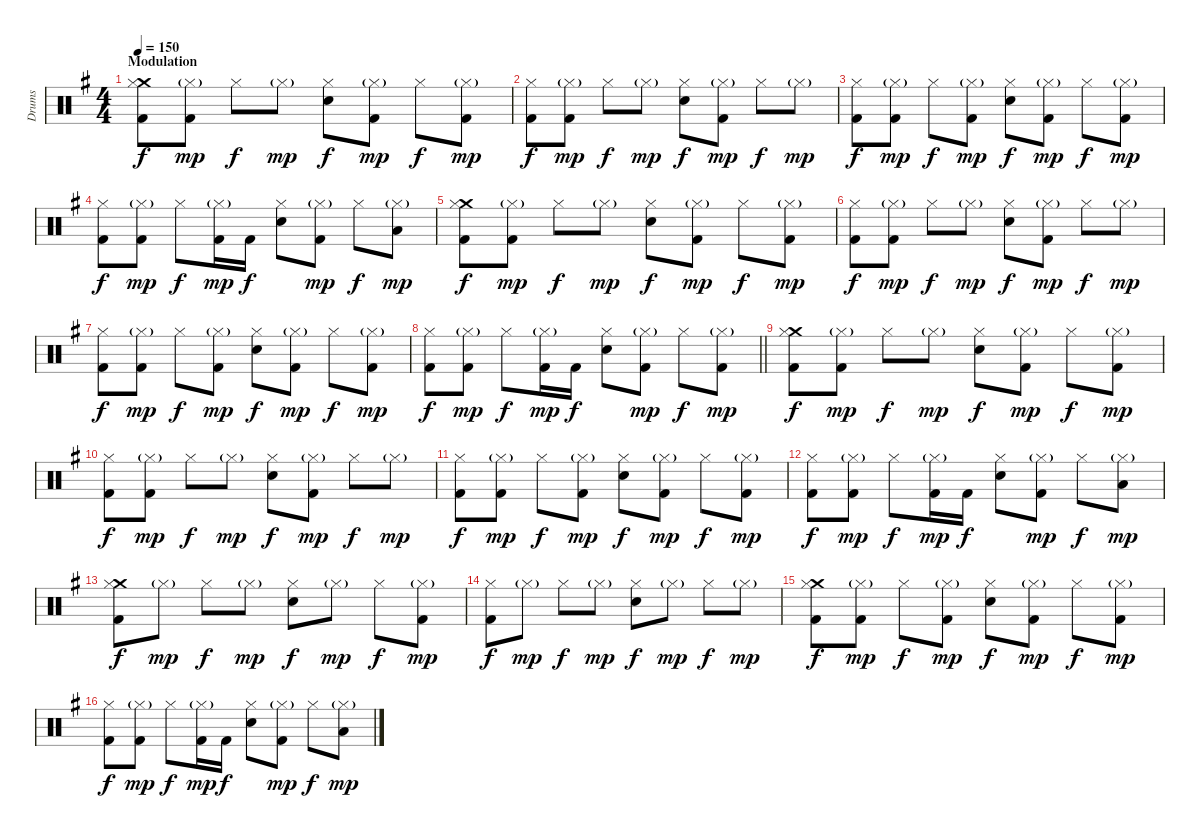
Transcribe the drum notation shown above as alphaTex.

\track ("Drums" "Drums") {instrument percussion}
\staff {score}
\articulation defaults
\ts (4 4)
\section ("" "Modulation")
\tempo 150
\clef neutral
\ks eminor
("Crash medium (hit)" "Hi-Hat (closed)" "Kick (hit) 2").8{dy f} ("Hi-Hat (closed)"{g} "Kick (hit) 2").8{dy mp} "Hi-Hat (closed)".8{dy f} "Hi-Hat (closed)"{g}.8{dy mp} ("Hi-Hat (closed)" "Electric Snare (hit)").8{dy f} ("Hi-Hat (closed)"{g} "Kick (hit) 2").8{dy mp} "Hi-Hat (closed)".8{dy f} ("Hi-Hat (closed)"{g} "Kick (hit) 2").8{dy mp} |
("Hi-Hat (closed)" "Kick (hit) 2").8{dy f} ("Hi-Hat (closed)"{g} "Kick (hit) 2").8{dy mp} "Hi-Hat (closed)".8{dy f} "Hi-Hat (closed)"{g}.8{dy mp} ("Hi-Hat (closed)" "Electric Snare (hit)").8{dy f} ("Hi-Hat (closed)"{g} "Kick (hit) 2").8{dy mp} "Hi-Hat (closed)".8{dy f} "Hi-Hat (closed)"{g}.8{dy mp} |
("Hi-Hat (closed)" "Kick (hit) 2").8{dy f} ("Hi-Hat (closed)"{g} "Kick (hit) 2").8{dy mp} "Hi-Hat (closed)".8{dy f} ("Hi-Hat (closed)"{g} "Kick (hit) 2").8{dy mp} ("Hi-Hat (closed)" "Electric Snare (hit)").8{dy f} ("Hi-Hat (closed)"{g} "Kick (hit) 2").8{dy mp} "Hi-Hat (closed)".8{dy f} ("Hi-Hat (closed)"{g} "Kick (hit) 2").8{dy mp} |
("Hi-Hat (closed)" "Kick (hit) 2").8{dy f} ("Hi-Hat (closed)"{g} "Kick (hit) 2").8{dy mp} "Hi-Hat (closed)".8{dy f} ("Hi-Hat (closed)"{g} "Kick (hit) 2").16{dy mp} "Kick (hit) 2".16{dy f} ("Hi-Hat (closed)" "Electric Snare (hit)").8 ("Hi-Hat (closed)"{g} "Kick (hit) 2").8{dy mp} "Hi-Hat (closed)".8{dy f} ("Hi-Hat (closed)"{g} "Low Tom (hit)").8{dy mp} |
("Crash medium (hit)" "Hi-Hat (closed)" "Kick (hit) 2").8{dy f} ("Hi-Hat (closed)"{g} "Kick (hit) 2").8{dy mp} "Hi-Hat (closed)".8{dy f} "Hi-Hat (closed)"{g}.8{dy mp} ("Hi-Hat (closed)" "Electric Snare (hit)").8{dy f} ("Hi-Hat (closed)"{g} "Kick (hit) 2").8{dy mp} "Hi-Hat (closed)".8{dy f} ("Hi-Hat (closed)"{g} "Kick (hit) 2").8{dy mp} |
("Hi-Hat (closed)" "Kick (hit) 2").8{dy f} ("Hi-Hat (closed)"{g} "Kick (hit) 2").8{dy mp} "Hi-Hat (closed)".8{dy f} "Hi-Hat (closed)"{g}.8{dy mp} ("Hi-Hat (closed)" "Electric Snare (hit)").8{dy f} ("Hi-Hat (closed)"{g} "Kick (hit) 2").8{dy mp} "Hi-Hat (closed)".8{dy f} "Hi-Hat (closed)"{g}.8{dy mp} |
("Hi-Hat (closed)" "Kick (hit) 2").8{dy f} ("Hi-Hat (closed)"{g} "Kick (hit) 2").8{dy mp} "Hi-Hat (closed)".8{dy f} ("Hi-Hat (closed)"{g} "Kick (hit) 2").8{dy mp} ("Hi-Hat (closed)" "Electric Snare (hit)").8{dy f} ("Hi-Hat (closed)"{g} "Kick (hit) 2").8{dy mp} "Hi-Hat (closed)".8{dy f} ("Hi-Hat (closed)"{g} "Kick (hit) 2").8{dy mp} |
\barLineRight lightlight
("Hi-Hat (closed)" "Kick (hit) 2").8{dy f} ("Hi-Hat (closed)"{g} "Kick (hit) 2").8{dy mp} "Hi-Hat (closed)".8{dy f} ("Hi-Hat (closed)"{g} "Kick (hit) 2").16{dy mp} "Kick (hit) 2".16{dy f} ("Hi-Hat (closed)" "Electric Snare (hit)").8 ("Hi-Hat (closed)"{g} "Kick (hit) 2").8{dy mp} "Hi-Hat (closed)".8{dy f} ("Hi-Hat (closed)"{g} "Kick (hit) 2").8{dy mp} |
\section ("" "")
("Crash medium (hit)" "Hi-Hat (closed)" "Kick (hit) 2").8{dy f} ("Hi-Hat (closed)"{g} "Kick (hit) 2").8{dy mp} "Hi-Hat (closed)".8{dy f} "Hi-Hat (closed)"{g}.8{dy mp} ("Hi-Hat (closed)" "Electric Snare (hit)").8{dy f} ("Hi-Hat (closed)"{g} "Kick (hit) 2").8{dy mp} "Hi-Hat (closed)".8{dy f} ("Hi-Hat (closed)"{g} "Kick (hit) 2").8{dy mp} |
("Hi-Hat (closed)" "Kick (hit) 2").8{dy f} ("Hi-Hat (closed)"{g} "Kick (hit) 2").8{dy mp} "Hi-Hat (closed)".8{dy f} "Hi-Hat (closed)"{g}.8{dy mp} ("Hi-Hat (closed)" "Electric Snare (hit)").8{dy f} ("Hi-Hat (closed)"{g} "Kick (hit) 2").8{dy mp} "Hi-Hat (closed)".8{dy f} "Hi-Hat (closed)"{g}.8{dy mp} |
("Hi-Hat (closed)" "Kick (hit) 2").8{dy f} ("Hi-Hat (closed)"{g} "Kick (hit) 2").8{dy mp} "Hi-Hat (closed)".8{dy f} ("Hi-Hat (closed)"{g} "Kick (hit) 2").8{dy mp} ("Hi-Hat (closed)" "Electric Snare (hit)").8{dy f} ("Hi-Hat (closed)"{g} "Kick (hit) 2").8{dy mp} "Hi-Hat (closed)".8{dy f} ("Hi-Hat (closed)"{g} "Kick (hit) 2").8{dy mp} |
("Hi-Hat (closed)" "Kick (hit) 2").8{dy f} ("Hi-Hat (closed)"{g} "Kick (hit) 2").8{dy mp} "Hi-Hat (closed)".8{dy f} ("Hi-Hat (closed)"{g} "Kick (hit) 2").16{dy mp} "Kick (hit) 2".16{dy f} ("Hi-Hat (closed)" "Electric Snare (hit)").8 ("Hi-Hat (closed)"{g} "Kick (hit) 2").8{dy mp} "Hi-Hat (closed)".8{dy f} ("Hi-Hat (closed)"{g} "Low Tom (hit)").8{dy mp} |
("Crash medium (hit)" "Hi-Hat (closed)" "Kick (hit) 2").8{dy f} "Hi-Hat (closed)"{g}.8{dy mp} "Hi-Hat (closed)".8{dy f} "Hi-Hat (closed)"{g}.8{dy mp} ("Hi-Hat (closed)" "Electric Snare (hit)").8{dy f} "Hi-Hat (closed)"{g}.8{dy mp} "Hi-Hat (closed)".8{dy f} ("Hi-Hat (closed)"{g} "Kick (hit) 2").8{dy mp} |
("Hi-Hat (closed)" "Kick (hit) 2").8{dy f} "Hi-Hat (closed)"{g}.8{dy mp} "Hi-Hat (closed)".8{dy f} "Hi-Hat (closed)"{g}.8{dy mp} ("Hi-Hat (closed)" "Electric Snare (hit)").8{dy f} "Hi-Hat (closed)"{g}.8{dy mp} "Hi-Hat (closed)".8{dy f} "Hi-Hat (closed)"{g}.8{dy mp} |
("Crash medium (hit)" "Hi-Hat (closed)" "Kick (hit) 2").8{dy f} ("Hi-Hat (closed)"{g} "Kick (hit) 2").8{dy mp} "Hi-Hat (closed)".8{dy f} ("Hi-Hat (closed)"{g} "Kick (hit) 2").8{dy mp} ("Hi-Hat (closed)" "Electric Snare (hit)").8{dy f} ("Hi-Hat (closed)"{g} "Kick (hit) 2").8{dy mp} "Hi-Hat (closed)".8{dy f} ("Hi-Hat (closed)"{g} "Kick (hit) 2").8{dy mp} |
("Hi-Hat (closed)" "Kick (hit) 2").8{dy f} ("Hi-Hat (closed)"{g} "Kick (hit) 2").8{dy mp} "Hi-Hat (closed)".8{dy f} ("Hi-Hat (closed)"{g} "Kick (hit) 2").16{dy mp} "Kick (hit) 2".16{dy f} ("Hi-Hat (closed)" "Electric Snare (hit)").8 ("Hi-Hat (closed)"{g} "Kick (hit) 2").8{dy mp} "Hi-Hat (closed)".8{dy f} ("Hi-Hat (closed)"{g} "Low Tom (hit)").8{dy mp}
